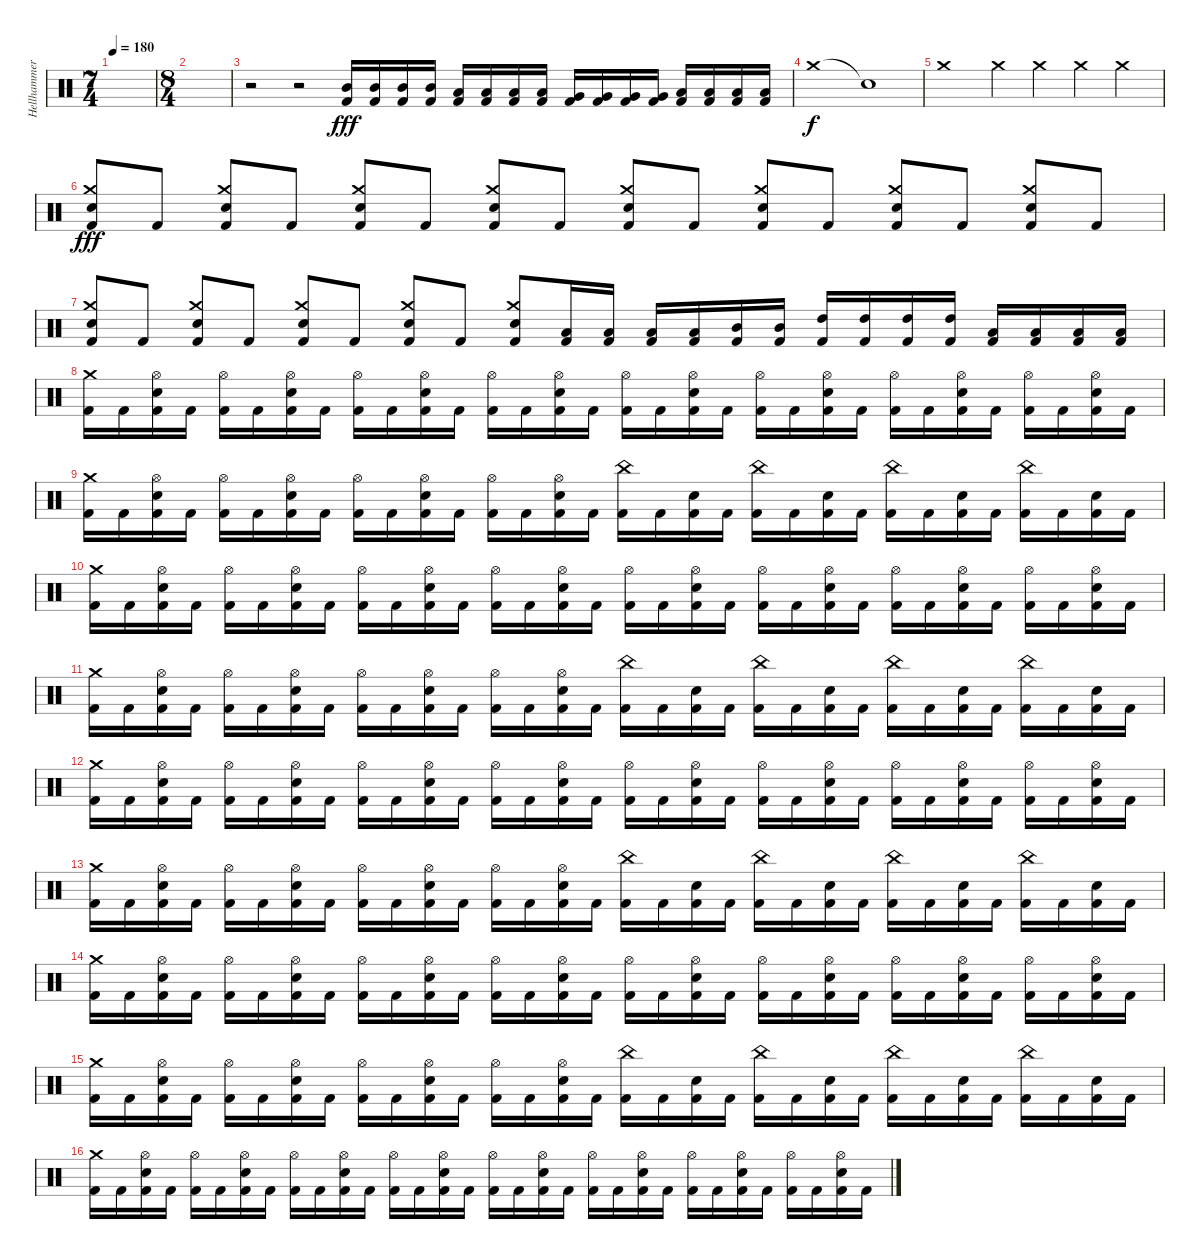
\track ("Hellhammer (Drums)" "Hellhammer") {instrument percussion}
\staff {score}
\articulation defaults
\ts (7 4)
\tempo 180
\clef neutral
\ks c
|
\ts (8 4)
|
r.2 r.2 ("Mid Tom (hit)" "Kick (hit) 2").16{dy fff} ("Mid Tom (hit)" "Kick (hit) 2").16 ("Mid Tom (hit)" "Kick (hit) 2").16 ("Mid Tom (hit)" "Kick (hit) 2").16 ("Low Tom (hit)" "Kick (hit) 2").16 ("Low Tom (hit)" "Kick (hit) 2").16 ("Low Tom (hit)" "Kick (hit) 2").16 ("Low Tom (hit)" "Kick (hit) 2").16 ("Very Low Tom (hit)" "Kick (hit) 2").16 ("Very Low Tom (hit)" "Kick (hit) 2").16 ("Very Low Tom (hit)" "Kick (hit) 2").16 ("Very Low Tom (hit)" "Kick (hit) 2").16 ("Low Floor Tom (hit)" "Kick (hit) 2").16 ("Low Floor Tom (hit)" "Kick (hit) 2").16 ("Low Floor Tom (hit)" "Kick (hit) 2").16 ("Low Floor Tom (hit)" "Kick (hit) 2").16 |
"Crash medium (hit)".1{dy f} "Snare (hit)"{t}.1 |
"Crash medium (hit)".1 "Crash medium (hit)".4 "Crash medium (hit)".4 "Crash medium (hit)".4 "Crash medium (hit)".4 |
("Crash medium (hit)" "Electric Snare (hit)" "Kick (hit) 2").8{dy fff} "Kick (hit) 2".8 ("Crash medium (hit)" "Electric Snare (hit)" "Kick (hit) 2").8 "Kick (hit) 2".8 ("Crash medium (hit)" "Electric Snare (hit)" "Kick (hit) 2").8 "Kick (hit) 2".8 ("Crash medium (hit)" "Electric Snare (hit)" "Kick (hit) 2").8 "Kick (hit) 2".8 ("Crash medium (hit)" "Electric Snare (hit)" "Kick (hit) 2").8 "Kick (hit) 2".8 ("Crash medium (hit)" "Electric Snare (hit)" "Kick (hit) 2").8 "Kick (hit) 2".8 ("Crash medium (hit)" "Electric Snare (hit)" "Kick (hit) 2").8 "Kick (hit) 2".8 ("Crash medium (hit)" "Electric Snare (hit)" "Kick (hit) 2").8 "Kick (hit) 2".8 |
("Crash medium (hit)" "Electric Snare (hit)" "Kick (hit) 2").8 "Kick (hit) 2".8 ("Crash medium (hit)" "Electric Snare (hit)" "Kick (hit) 2").8 "Kick (hit) 2".8 ("Crash medium (hit)" "Electric Snare (hit)" "Kick (hit) 2").8 "Kick (hit) 2".8 ("Crash medium (hit)" "Electric Snare (hit)" "Kick (hit) 2").8 "Kick (hit) 2".8 ("Crash medium (hit)" "Electric Snare (hit)" "Kick (hit) 2").8 ("Low Tom (hit)" "Kick (hit) 2").16 ("Low Tom (hit)" "Kick (hit) 2").16 ("Low Tom (hit)" "Kick (hit) 2").16 ("Low Tom (hit)" "Kick (hit) 2").16 ("Mid Tom (hit)" "Kick (hit) 2").16 ("Mid Tom (hit)" "Kick (hit) 2").16 ("High Tom (hit)" "Kick (hit) 2").16 ("High Tom (hit)" "Kick (hit) 2").16 ("High Tom (hit)" "Kick (hit) 2").16 ("High Tom (hit)" "Kick (hit) 2").16 ("Low Tom (hit)" "Kick (hit) 2").16 ("Low Tom (hit)" "Kick (hit) 2").16 ("Low Tom (hit)" "Kick (hit) 2").16 ("Low Tom (hit)" "Kick (hit) 2").16 |
("Crash medium (hit)" "Kick (hit) 2").16 "Kick (hit) 2".16 ("Hi-Hat (open)" "Electric Snare (hit)" "Kick (hit) 2").16 "Kick (hit) 2".16 ("Hi-Hat (open)" "Kick (hit) 2").16 "Kick (hit) 2".16 ("Hi-Hat (open)" "Electric Snare (hit)" "Kick (hit) 2").16 "Kick (hit) 2".16 ("Hi-Hat (open)" "Kick (hit) 2").16 "Kick (hit) 2".16 ("Hi-Hat (open)" "Electric Snare (hit)" "Kick (hit) 2").16 "Kick (hit) 2".16 ("Hi-Hat (open)" "Kick (hit) 2").16 "Kick (hit) 2".16 ("Hi-Hat (open)" "Electric Snare (hit)" "Kick (hit) 2").16 "Kick (hit) 2".16 ("Hi-Hat (open)" "Kick (hit) 2").16 "Kick (hit) 2".16 ("Hi-Hat (open)" "Electric Snare (hit)" "Kick (hit) 2").16 "Kick (hit) 2".16 ("Hi-Hat (open)" "Kick (hit) 2").16 "Kick (hit) 2".16 ("Hi-Hat (open)" "Electric Snare (hit)" "Kick (hit) 2").16 "Kick (hit) 2".16 ("Hi-Hat (open)" "Kick (hit) 2").16 "Kick (hit) 2".16 ("Hi-Hat (open)" "Electric Snare (hit)" "Kick (hit) 2").16 "Kick (hit) 2".16 ("Hi-Hat (open)" "Kick (hit) 2").16 "Kick (hit) 2".16 ("Hi-Hat (open)" "Electric Snare (hit)" "Kick (hit) 2").16 "Kick (hit) 2".16 |
("Crash medium (hit)" "Kick (hit) 2").16 "Kick (hit) 2".16 ("Hi-Hat (open)" "Electric Snare (hit)" "Kick (hit) 2").16 "Kick (hit) 2".16 ("Hi-Hat (open)" "Kick (hit) 2").16 "Kick (hit) 2".16 ("Hi-Hat (open)" "Electric Snare (hit)" "Kick (hit) 2").16 "Kick (hit) 2".16 ("Hi-Hat (open)" "Kick (hit) 2").16 "Kick (hit) 2".16 ("Hi-Hat (open)" "Electric Snare (hit)" "Kick (hit) 2").16 "Kick (hit) 2".16 ("Hi-Hat (open)" "Kick (hit) 2").16 "Kick (hit) 2".16 ("Hi-Hat (open)" "Electric Snare (hit)" "Kick (hit) 2").16 "Kick (hit) 2".16 ("China (hit)" "Kick (hit) 2").16 "Kick (hit) 2".16 ("Electric Snare (hit)" "Kick (hit) 2").16 "Kick (hit) 2".16 ("China (hit)" "Kick (hit) 2").16 "Kick (hit) 2".16 ("Electric Snare (hit)" "Kick (hit) 2").16 "Kick (hit) 2".16 ("China (hit)" "Kick (hit) 2").16 "Kick (hit) 2".16 ("Electric Snare (hit)" "Kick (hit) 2").16 "Kick (hit) 2".16 ("China (hit)" "Kick (hit) 2").16 "Kick (hit) 2".16 ("Electric Snare (hit)" "Kick (hit) 2").16 "Kick (hit) 2".16 |
("Crash medium (hit)" "Kick (hit) 2").16 "Kick (hit) 2".16 ("Hi-Hat (open)" "Electric Snare (hit)" "Kick (hit) 2").16 "Kick (hit) 2".16 ("Hi-Hat (open)" "Kick (hit) 2").16 "Kick (hit) 2".16 ("Hi-Hat (open)" "Electric Snare (hit)" "Kick (hit) 2").16 "Kick (hit) 2".16 ("Hi-Hat (open)" "Kick (hit) 2").16 "Kick (hit) 2".16 ("Hi-Hat (open)" "Electric Snare (hit)" "Kick (hit) 2").16 "Kick (hit) 2".16 ("Hi-Hat (open)" "Kick (hit) 2").16 "Kick (hit) 2".16 ("Hi-Hat (open)" "Electric Snare (hit)" "Kick (hit) 2").16 "Kick (hit) 2".16 ("Hi-Hat (open)" "Kick (hit) 2").16 "Kick (hit) 2".16 ("Hi-Hat (open)" "Electric Snare (hit)" "Kick (hit) 2").16 "Kick (hit) 2".16 ("Hi-Hat (open)" "Kick (hit) 2").16 "Kick (hit) 2".16 ("Hi-Hat (open)" "Electric Snare (hit)" "Kick (hit) 2").16 "Kick (hit) 2".16 ("Hi-Hat (open)" "Kick (hit) 2").16 "Kick (hit) 2".16 ("Hi-Hat (open)" "Electric Snare (hit)" "Kick (hit) 2").16 "Kick (hit) 2".16 ("Hi-Hat (open)" "Kick (hit) 2").16 "Kick (hit) 2".16 ("Hi-Hat (open)" "Electric Snare (hit)" "Kick (hit) 2").16 "Kick (hit) 2".16 |
("Crash medium (hit)" "Kick (hit) 2").16 "Kick (hit) 2".16 ("Hi-Hat (open)" "Electric Snare (hit)" "Kick (hit) 2").16 "Kick (hit) 2".16 ("Hi-Hat (open)" "Kick (hit) 2").16 "Kick (hit) 2".16 ("Hi-Hat (open)" "Electric Snare (hit)" "Kick (hit) 2").16 "Kick (hit) 2".16 ("Hi-Hat (open)" "Kick (hit) 2").16 "Kick (hit) 2".16 ("Hi-Hat (open)" "Electric Snare (hit)" "Kick (hit) 2").16 "Kick (hit) 2".16 ("Hi-Hat (open)" "Kick (hit) 2").16 "Kick (hit) 2".16 ("Hi-Hat (open)" "Electric Snare (hit)" "Kick (hit) 2").16 "Kick (hit) 2".16 ("China (hit)" "Kick (hit) 2").16 "Kick (hit) 2".16 ("Electric Snare (hit)" "Kick (hit) 2").16 "Kick (hit) 2".16 ("China (hit)" "Kick (hit) 2").16 "Kick (hit) 2".16 ("Electric Snare (hit)" "Kick (hit) 2").16 "Kick (hit) 2".16 ("China (hit)" "Kick (hit) 2").16 "Kick (hit) 2".16 ("Electric Snare (hit)" "Kick (hit) 2").16 "Kick (hit) 2".16 ("China (hit)" "Kick (hit) 2").16 "Kick (hit) 2".16 ("Electric Snare (hit)" "Kick (hit) 2").16 "Kick (hit) 2".16 |
("Crash medium (hit)" "Kick (hit) 2").16 "Kick (hit) 2".16 ("Hi-Hat (open)" "Electric Snare (hit)" "Kick (hit) 2").16 "Kick (hit) 2".16 ("Hi-Hat (open)" "Kick (hit) 2").16 "Kick (hit) 2".16 ("Hi-Hat (open)" "Electric Snare (hit)" "Kick (hit) 2").16 "Kick (hit) 2".16 ("Hi-Hat (open)" "Kick (hit) 2").16 "Kick (hit) 2".16 ("Hi-Hat (open)" "Electric Snare (hit)" "Kick (hit) 2").16 "Kick (hit) 2".16 ("Hi-Hat (open)" "Kick (hit) 2").16 "Kick (hit) 2".16 ("Hi-Hat (open)" "Electric Snare (hit)" "Kick (hit) 2").16 "Kick (hit) 2".16 ("Hi-Hat (open)" "Kick (hit) 2").16 "Kick (hit) 2".16 ("Hi-Hat (open)" "Electric Snare (hit)" "Kick (hit) 2").16 "Kick (hit) 2".16 ("Hi-Hat (open)" "Kick (hit) 2").16 "Kick (hit) 2".16 ("Hi-Hat (open)" "Electric Snare (hit)" "Kick (hit) 2").16 "Kick (hit) 2".16 ("Hi-Hat (open)" "Kick (hit) 2").16 "Kick (hit) 2".16 ("Hi-Hat (open)" "Electric Snare (hit)" "Kick (hit) 2").16 "Kick (hit) 2".16 ("Hi-Hat (open)" "Kick (hit) 2").16 "Kick (hit) 2".16 ("Hi-Hat (open)" "Electric Snare (hit)" "Kick (hit) 2").16 "Kick (hit) 2".16 |
("Crash medium (hit)" "Kick (hit) 2").16 "Kick (hit) 2".16 ("Hi-Hat (open)" "Electric Snare (hit)" "Kick (hit) 2").16 "Kick (hit) 2".16 ("Hi-Hat (open)" "Kick (hit) 2").16 "Kick (hit) 2".16 ("Hi-Hat (open)" "Electric Snare (hit)" "Kick (hit) 2").16 "Kick (hit) 2".16 ("Hi-Hat (open)" "Kick (hit) 2").16 "Kick (hit) 2".16 ("Hi-Hat (open)" "Electric Snare (hit)" "Kick (hit) 2").16 "Kick (hit) 2".16 ("Hi-Hat (open)" "Kick (hit) 2").16 "Kick (hit) 2".16 ("Hi-Hat (open)" "Electric Snare (hit)" "Kick (hit) 2").16 "Kick (hit) 2".16 ("China (hit)" "Kick (hit) 2").16 "Kick (hit) 2".16 ("Electric Snare (hit)" "Kick (hit) 2").16 "Kick (hit) 2".16 ("China (hit)" "Kick (hit) 2").16 "Kick (hit) 2".16 ("Electric Snare (hit)" "Kick (hit) 2").16 "Kick (hit) 2".16 ("China (hit)" "Kick (hit) 2").16 "Kick (hit) 2".16 ("Electric Snare (hit)" "Kick (hit) 2").16 "Kick (hit) 2".16 ("China (hit)" "Kick (hit) 2").16 "Kick (hit) 2".16 ("Electric Snare (hit)" "Kick (hit) 2").16 "Kick (hit) 2".16 |
("Crash medium (hit)" "Kick (hit) 2").16 "Kick (hit) 2".16 ("Hi-Hat (open)" "Electric Snare (hit)" "Kick (hit) 2").16 "Kick (hit) 2".16 ("Hi-Hat (open)" "Kick (hit) 2").16 "Kick (hit) 2".16 ("Hi-Hat (open)" "Electric Snare (hit)" "Kick (hit) 2").16 "Kick (hit) 2".16 ("Hi-Hat (open)" "Kick (hit) 2").16 "Kick (hit) 2".16 ("Hi-Hat (open)" "Electric Snare (hit)" "Kick (hit) 2").16 "Kick (hit) 2".16 ("Hi-Hat (open)" "Kick (hit) 2").16 "Kick (hit) 2".16 ("Hi-Hat (open)" "Electric Snare (hit)" "Kick (hit) 2").16 "Kick (hit) 2".16 ("Hi-Hat (open)" "Kick (hit) 2").16 "Kick (hit) 2".16 ("Hi-Hat (open)" "Electric Snare (hit)" "Kick (hit) 2").16 "Kick (hit) 2".16 ("Hi-Hat (open)" "Kick (hit) 2").16 "Kick (hit) 2".16 ("Hi-Hat (open)" "Electric Snare (hit)" "Kick (hit) 2").16 "Kick (hit) 2".16 ("Hi-Hat (open)" "Kick (hit) 2").16 "Kick (hit) 2".16 ("Hi-Hat (open)" "Electric Snare (hit)" "Kick (hit) 2").16 "Kick (hit) 2".16 ("Hi-Hat (open)" "Kick (hit) 2").16 "Kick (hit) 2".16 ("Hi-Hat (open)" "Electric Snare (hit)" "Kick (hit) 2").16 "Kick (hit) 2".16 |
("Crash medium (hit)" "Kick (hit) 2").16 "Kick (hit) 2".16 ("Hi-Hat (open)" "Electric Snare (hit)" "Kick (hit) 2").16 "Kick (hit) 2".16 ("Hi-Hat (open)" "Kick (hit) 2").16 "Kick (hit) 2".16 ("Hi-Hat (open)" "Electric Snare (hit)" "Kick (hit) 2").16 "Kick (hit) 2".16 ("Hi-Hat (open)" "Kick (hit) 2").16 "Kick (hit) 2".16 ("Hi-Hat (open)" "Electric Snare (hit)" "Kick (hit) 2").16 "Kick (hit) 2".16 ("Hi-Hat (open)" "Kick (hit) 2").16 "Kick (hit) 2".16 ("Hi-Hat (open)" "Electric Snare (hit)" "Kick (hit) 2").16 "Kick (hit) 2".16 ("China (hit)" "Kick (hit) 2").16 "Kick (hit) 2".16 ("Electric Snare (hit)" "Kick (hit) 2").16 "Kick (hit) 2".16 ("China (hit)" "Kick (hit) 2").16 "Kick (hit) 2".16 ("Electric Snare (hit)" "Kick (hit) 2").16 "Kick (hit) 2".16 ("China (hit)" "Kick (hit) 2").16 "Kick (hit) 2".16 ("Electric Snare (hit)" "Kick (hit) 2").16 "Kick (hit) 2".16 ("China (hit)" "Kick (hit) 2").16 "Kick (hit) 2".16 ("Electric Snare (hit)" "Kick (hit) 2").16 "Kick (hit) 2".16 |
("Crash medium (hit)" "Kick (hit) 2").16 "Kick (hit) 2".16 ("Hi-Hat (open)" "Electric Snare (hit)" "Kick (hit) 2").16 "Kick (hit) 2".16 ("Hi-Hat (open)" "Kick (hit) 2").16 "Kick (hit) 2".16 ("Hi-Hat (open)" "Electric Snare (hit)" "Kick (hit) 2").16 "Kick (hit) 2".16 ("Hi-Hat (open)" "Kick (hit) 2").16 "Kick (hit) 2".16 ("Hi-Hat (open)" "Electric Snare (hit)" "Kick (hit) 2").16 "Kick (hit) 2".16 ("Hi-Hat (open)" "Kick (hit) 2").16 "Kick (hit) 2".16 ("Hi-Hat (open)" "Electric Snare (hit)" "Kick (hit) 2").16 "Kick (hit) 2".16 ("Hi-Hat (open)" "Kick (hit) 2").16 "Kick (hit) 2".16 ("Hi-Hat (open)" "Electric Snare (hit)" "Kick (hit) 2").16 "Kick (hit) 2".16 ("Hi-Hat (open)" "Kick (hit) 2").16 "Kick (hit) 2".16 ("Hi-Hat (open)" "Electric Snare (hit)" "Kick (hit) 2").16 "Kick (hit) 2".16 ("Hi-Hat (open)" "Kick (hit) 2").16 "Kick (hit) 2".16 ("Hi-Hat (open)" "Electric Snare (hit)" "Kick (hit) 2").16 "Kick (hit) 2".16 ("Hi-Hat (open)" "Kick (hit) 2").16 "Kick (hit) 2".16 ("Hi-Hat (open)" "Electric Snare (hit)" "Kick (hit) 2").16 "Kick (hit) 2".16
